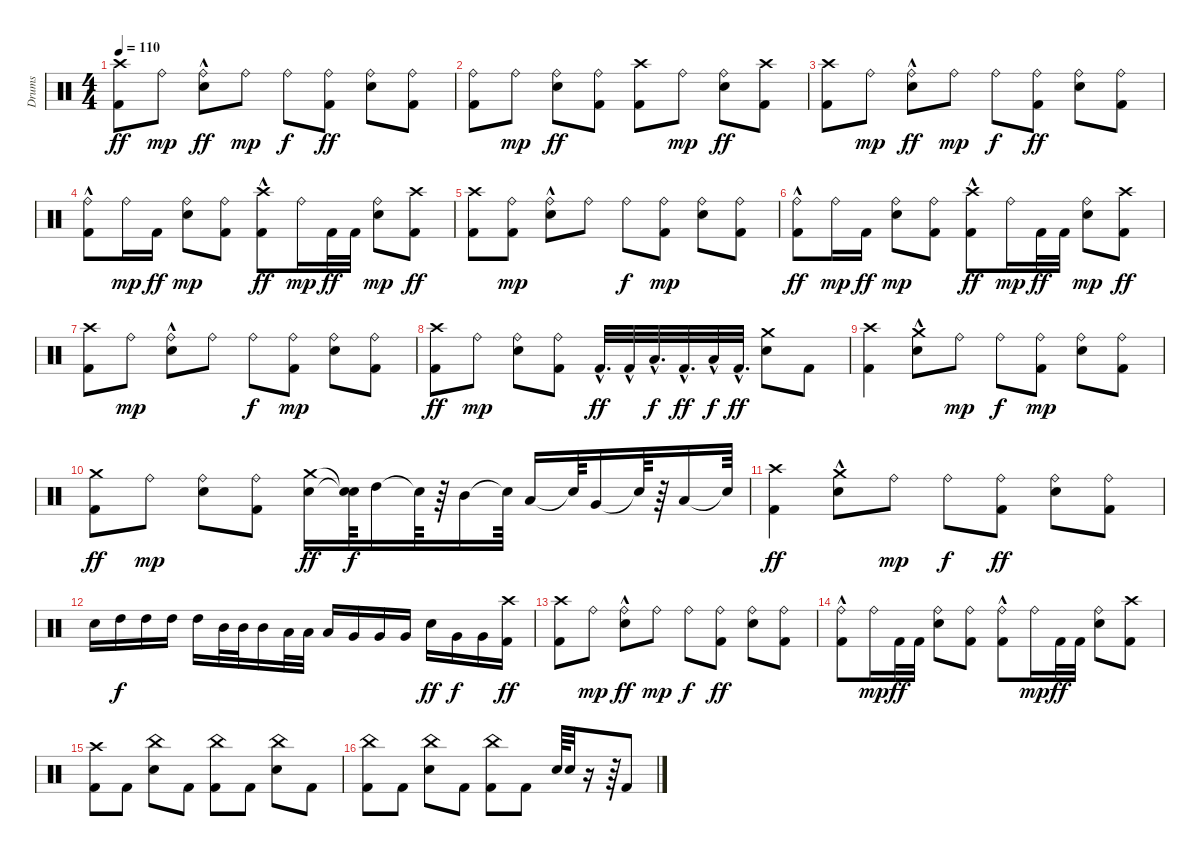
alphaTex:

\track ("Drums" "Drums") {instrument percussion}
\staff {score}
\articulation defaults
\ts (4 4)
\tempo 110
\clef neutral
\ks c
("Crash high (hit)" "Kick (hit) 2").8{dy ff} "Ride (bell)".8{dy mp} ("Ride (bell)" "Electric Snare (hit)"{hac}).8{dy ff} "Ride (bell)".8{dy mp} "Ride (bell)".8{dy f} ("Ride (bell)" "Kick (hit) 2").8{dy ff} ("Ride (bell)" "Electric Snare (hit)").8 ("Ride (bell)" "Kick (hit) 2").8 |
("Ride (bell)" "Kick (hit) 2").8 "Ride (bell)".8{dy mp} ("Ride (bell)" "Electric Snare (hit)").8{dy ff} ("Ride (bell)" "Kick (hit) 2").8 ("Crash high (hit)" "Kick (hit) 2").8 "Ride (bell)".8{dy mp} ("Ride (bell)" "Electric Snare (hit)").8{dy ff} ("Crash high (hit)" "Kick (hit) 2").8 |
("Crash high (hit)" "Kick (hit) 2").8 "Ride (bell)".8{dy mp} ("Ride (bell)" "Electric Snare (hit)"{hac}).8{dy ff} "Ride (bell)".8{dy mp} "Ride (bell)".8{dy f} ("Ride (bell)" "Kick (hit) 2").8{dy ff} ("Ride (bell)" "Electric Snare (hit)").8 ("Ride (bell)" "Kick (hit) 2").8 |
("Kick (hit) 2"{hac} "Ride (bell)").8 "Ride (bell)".16{dy mp} "Kick (hit) 2".16{dy ff} ("Electric Snare (hit)" "Ride (bell)").8{dy mp} ("Kick (hit) 2" "Ride (bell)").8 ("Crash high (hit)" "Kick (hit) 2"{hac}).8{dy ff} "Ride (bell)".16{dy mp} "Kick (hit) 2".32{dy ff} "Kick (hit) 2".32 ("Electric Snare (hit)" "Ride (bell)").8{dy mp} ("Crash high (hit)" "Kick (hit) 2").8{dy ff} |
("Crash high (hit)" "Kick (hit) 2").8 ("Kick (hit) 2" "Ride (bell)").8{dy mp} ("Electric Snare (hit)"{hac} "Ride (bell)").8 "Ride (bell)".8 "Ride (bell)".8{dy f} ("Kick (hit) 2" "Ride (bell)").8{dy mp} ("Electric Snare (hit)" "Ride (bell)").8 ("Kick (hit) 2" "Ride (bell)").8 |
("Kick (hit) 2"{hac} "Ride (bell)").8{dy ff} "Ride (bell)".16{dy mp} "Kick (hit) 2".16{dy ff} ("Electric Snare (hit)" "Ride (bell)").8{dy mp} ("Kick (hit) 2" "Ride (bell)").8 ("Crash high (hit)" "Kick (hit) 2"{hac}).8{dy ff} "Ride (bell)".16{dy mp} "Kick (hit) 2".32{dy ff} "Kick (hit) 2".32 ("Electric Snare (hit)" "Ride (bell)").8{dy mp} ("Crash high (hit)" "Kick (hit) 2").8{dy ff} |
("Crash high (hit)" "Kick (hit) 2").8 "Ride (bell)".8{dy mp} ("Electric Snare (hit)"{hac} "Ride (bell)").8 "Ride (bell)".8 "Ride (bell)".8{dy f} ("Kick (hit) 2" "Ride (bell)").8{dy mp} ("Electric Snare (hit)" "Ride (bell)").8 ("Kick (hit) 2" "Ride (bell)").8 |
("Crash high (hit)" "Kick (hit) 2").8{dy ff} "Ride (bell)".8{dy mp} ("Electric Snare (hit)" "Ride (bell)").8 ("Kick (hit) 2" "Ride (bell)").8 "Kick (hit) 2"{hac}.32{d dy ff} "Kick (hit) 2"{hac}.32 "Low Floor Tom (hit)"{hac}.32{d dy f} "Kick (hit) 2"{hac}.32{d dy ff} "Low Floor Tom (hit)"{hac}.32{dy f} "Kick (hit) 2"{hac}.32{d dy ff} ("Crash medium (hit)" "Electric Snare (hit)").8 "Kick (hit) 2".8 |
("Crash high (hit)" "Kick (hit) 2").4 ("Crash medium (hit)" "Electric Snare (hit)"{hac}).8 "Ride (bell)".8{dy mp} "Ride (bell)".8{dy f} ("Kick (hit) 2" "Ride (bell)").8{dy mp} ("Electric Snare (hit)" "Ride (bell)").8 ("Kick (hit) 2" "Ride (bell)").8 |
("Crash medium (hit)" "Kick (hit) 2").8{dy ff} "Ride (bell)".8{dy mp} ("Electric Snare (hit)" "Ride (bell)").8 ("Kick (hit) 2" "Ride (bell)").8 ("Crash medium (hit)" "Electric Snare (hit)").16{dy ff} ("Snare (hit)"{t} "Snare (hit)"{t}).64{dy f} "High Tom (hit)".16 "Snare (hit)"{t}.64 r.64 "Mid Tom (hit)".16 "Snare (hit)"{t}.64 "Low Tom (hit)".16 "Snare (hit)"{t}.64 "Very Low Tom (hit)".16 "Snare (hit)"{t}.64 r.64 "Low Floor Tom (hit)".16 "Snare (hit)"{t}.64 |
("Crash high (hit)" "Kick (hit) 2").4{dy ff} ("Crash medium (hit)" "Electric Snare (hit)"{hac}).8 "Ride (bell)".8{dy mp} "Ride (bell)".8{dy f} ("Ride (bell)" "Kick (hit) 2").8{dy ff} ("Ride (bell)" "Electric Snare (hit)").8 ("Ride (bell)" "Kick (hit) 2").8 |
"Electric Snare (hit)".16 "High Tom (hit)".16{dy f} "High Tom (hit)".16 "High Tom (hit)".16 "High Tom (hit)".16 "Mid Tom (hit)".32 "Mid Tom (hit)".32 "Mid Tom (hit)".16 "Low Tom (hit)".32 "Low Tom (hit)".32 "Low Tom (hit)".16 "Very Low Tom (hit)".16 "Very Low Tom (hit)".16 "Very Low Tom (hit)".16 "Electric Snare (hit)".16{dy ff} "Very Low Tom (hit)".16{dy f} "Very Low Tom (hit)".16 ("Crash high (hit)" "Kick (hit) 2").16{dy ff} |
("Crash high (hit)" "Kick (hit) 2").8 "Ride (bell)".8{dy mp} ("Ride (bell)" "Electric Snare (hit)"{hac}).8{dy ff} "Ride (bell)".8{dy mp} "Ride (bell)".8{dy f} ("Ride (bell)" "Kick (hit) 2").8{dy ff} ("Ride (bell)" "Electric Snare (hit)").8 ("Ride (bell)" "Kick (hit) 2").8 |
("Ride (bell)" "Kick (hit) 2"{hac}).8 "Ride (bell)".16{dy mp} "Kick (hit) 2".32{dy ff} "Kick (hit) 2".32 ("Ride (bell)" "Electric Snare (hit)").8 ("Ride (bell)" "Kick (hit) 2").8 ("Ride (bell)" "Kick (hit) 2"{hac}).8 "Ride (bell)".16{dy mp} "Kick (hit) 2".32{dy ff} "Kick (hit) 2".32 ("Ride (bell)" "Electric Snare (hit)").8 ("Crash high (hit)" "Kick (hit) 2").8 |
("Crash high (hit)" "Kick (hit) 2").8 "Kick (hit) 2".8 ("China (hit)" "Electric Snare (hit)").8 "Kick (hit) 2".8 ("China (hit)" "Kick (hit) 2").8 "Kick (hit) 2".8 ("China (hit)" "Electric Snare (hit)").8 "Kick (hit) 2".8 |
("China (hit)" "Kick (hit) 2").8 "Kick (hit) 2".8 ("China (hit)" "Electric Snare (hit)").8 "Kick (hit) 2".8 ("China (hit)" "Kick (hit) 2").8 "Kick (hit) 2".8 "Electric Snare (hit)".64 "Electric Snare (hit)".32 r.16 r.64 "Kick (hit) 2".8
